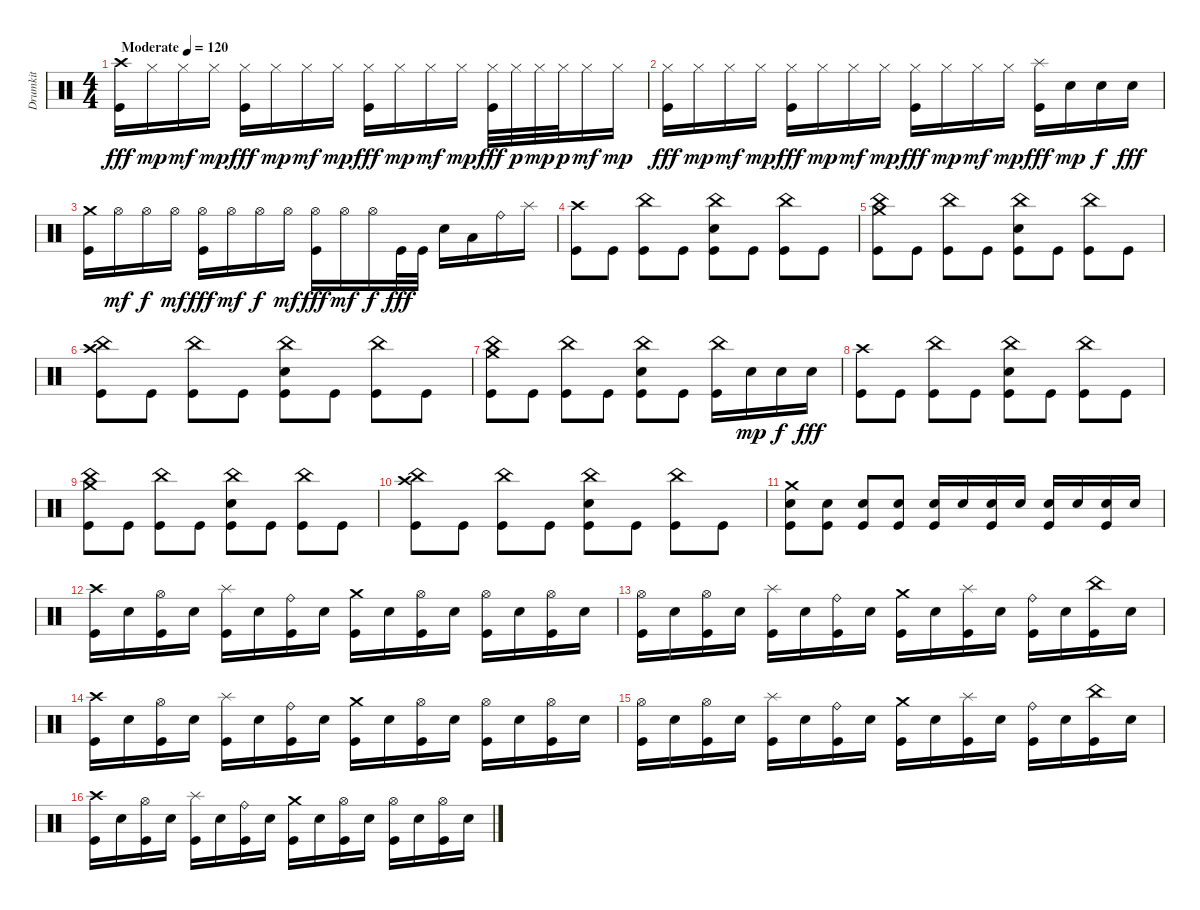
\track ("Drumkit" "Drumkit") {instrument percussion}
\staff {score}
\articulation defaults
\ts (4 4)
\tempo (120 "Moderate")
\clef neutral
\ks c
("Crash high (hit)" "Kick (hit)").16{dy fff} "Hi-Hat (closed)".16{dy mp} "Hi-Hat (closed)".16{dy mf} "Hi-Hat (closed)".16{dy mp} ("Hi-Hat (closed)" "Kick (hit)").16{dy fff} "Hi-Hat (closed)".16{dy mp} "Hi-Hat (closed)".16{dy mf} "Hi-Hat (closed)".16{dy mp} ("Hi-Hat (closed)" "Kick (hit)").16{dy fff} "Hi-Hat (closed)".16{dy mp} "Hi-Hat (closed)".16{dy mf} "Hi-Hat (closed)".16{dy mp} ("Hi-Hat (closed)" "Kick (hit)").32{dy fff} "Hi-Hat (closed)".32{dy p} "Hi-Hat (closed)".32{dy mp} "Hi-Hat (closed)".32{dy p} "Hi-Hat (closed)".16{dy mf} "Hi-Hat (closed)".16{dy mp} |
("Hi-Hat (closed)" "Kick (hit)").16{dy fff} "Hi-Hat (closed)".16{dy mp} "Hi-Hat (closed)".16{dy mf} "Hi-Hat (closed)".16{dy mp} ("Hi-Hat (closed)" "Kick (hit)").16{dy fff} "Hi-Hat (closed)".16{dy mp} "Hi-Hat (closed)".16{dy mf} "Hi-Hat (closed)".16{dy mp} ("Hi-Hat (closed)" "Kick (hit)").16{dy fff} "Hi-Hat (closed)".16{dy mp} "Hi-Hat (closed)".16{dy mf} "Hi-Hat (closed)".16{dy mp} ("Splash (hit)" "Kick (hit)").16{dy fff} "Snare (hit) 2".16{dy mp} "Snare (hit) 2".16{dy f} "Snare (hit) 2".16{dy fff} |
("Crash medium (hit)" "Kick (hit)").16 "Hi-Hat (open)".16{dy mf} "Hi-Hat (open)".16{dy f} "Hi-Hat (open)".16{dy mf} ("Hi-Hat (open)" "Kick (hit)").16{dy fff} "Hi-Hat (open)".16{dy mf} "Hi-Hat (open)".16{dy f} "Hi-Hat (open)".16{dy mf} ("Hi-Hat (open)" "Kick (hit)").16{dy fff} "Hi-Hat (open)".16{dy mf} "Hi-Hat (open)".16{dy f} "Kick (hit)".32{dy fff} "Kick (hit)".32 "Snare (hit) 2".16 "Low Tom (hit)".16 "Ride (bell)".16 "Splash (hit)".16 |
("Crash high (hit)" "Kick (hit)").8 "Kick (hit)".8 ("China (hit)" "Kick (hit)").8 "Kick (hit)".8 ("China (hit)" "Snare (hit) 2" "Kick (hit)").8 "Kick (hit)".8 ("China (hit)" "Kick (hit)").8 "Kick (hit)".8 |
("Crash medium (hit)" "China (hit)" "Kick (hit)").8 "Kick (hit)".8 ("China (hit)" "Kick (hit)").8 "Kick (hit)".8 ("China (hit)" "Snare (hit) 2" "Kick (hit)").8 "Kick (hit)".8 ("China (hit)" "Kick (hit)").8 "Kick (hit)".8 |
("Crash high (hit)" "China (hit)" "Kick (hit)").8 "Kick (hit)".8 ("China (hit)" "Kick (hit)").8 "Kick (hit)".8 ("China (hit)" "Snare (hit) 2" "Kick (hit)").8 "Kick (hit)".8 ("China (hit)" "Kick (hit)").8 "Kick (hit)".8 |
("Crash medium (hit)" "China (hit)" "Kick (hit)").8 "Kick (hit)".8 ("China (hit)" "Kick (hit)").8 "Kick (hit)".8 ("China (hit)" "Snare (hit) 2" "Kick (hit)").8 "Kick (hit)".8 ("China (hit)" "Kick (hit)").16 "Snare (hit) 2".16{dy mp} "Snare (hit) 2".16{dy f} "Snare (hit) 2".16{dy fff} |
("Crash high (hit)" "Kick (hit)").8 "Kick (hit)".8 ("China (hit)" "Kick (hit)").8 "Kick (hit)".8 ("China (hit)" "Snare (hit) 2" "Kick (hit)").8 "Kick (hit)".8 ("China (hit)" "Kick (hit)").8 "Kick (hit)".8 |
("Crash medium (hit)" "China (hit)" "Kick (hit)").8 "Kick (hit)".8 ("China (hit)" "Kick (hit)").8 "Kick (hit)".8 ("China (hit)" "Snare (hit) 2" "Kick (hit)").8 "Kick (hit)".8 ("China (hit)" "Kick (hit)").8 "Kick (hit)".8 |
("Crash high (hit)" "China (hit)" "Kick (hit)").8 "Kick (hit)".8 ("China (hit)" "Kick (hit)").8 "Kick (hit)".8 ("China (hit)" "Snare (hit) 2" "Kick (hit)").8 "Kick (hit)".8 ("China (hit)" "Kick (hit)").8 "Kick (hit)".8 |
("Crash medium (hit)" "Snare (hit) 2" "Kick (hit)").8 ("Snare (hit) 2" "Kick (hit)").8 ("Snare (hit) 2" "Kick (hit)").8 ("Snare (hit) 2" "Kick (hit)").8 ("Snare (hit) 2" "Kick (hit)").16 "Snare (hit) 2".16 ("Snare (hit) 2" "Kick (hit)").16 "Snare (hit) 2".16 ("Snare (hit) 2" "Kick (hit)").16 "Snare (hit) 2".16 ("Snare (hit) 2" "Kick (hit)").16 "Snare (hit) 2".16 |
("Crash high (hit)" "Kick (hit)").16 "Snare (hit) 2".16 ("Hi-Hat (open)" "Kick (hit)").16 "Snare (hit) 2".16 ("Splash (hit)" "Kick (hit)").16 "Snare (hit) 2".16 ("Ride (bell)" "Kick (hit)").16 "Snare (hit) 2".16 ("Crash medium (hit)" "Kick (hit)").16 "Snare (hit) 2".16 ("Hi-Hat (open)" "Kick (hit)").16 "Snare (hit) 2".16 ("Hi-Hat (open)" "Kick (hit)").16 "Snare (hit) 2".16 ("Hi-Hat (open)" "Kick (hit)").16 "Snare (hit) 2".16 |
("Hi-Hat (open)" "Kick (hit)").16 "Snare (hit) 2".16 ("Hi-Hat (open)" "Kick (hit)").16 "Snare (hit) 2".16 ("Splash (hit)" "Kick (hit)").16 "Snare (hit) 2".16 ("Ride (bell)" "Kick (hit)").16 "Snare (hit) 2".16 ("Crash medium (hit)" "Kick (hit)").16 "Snare (hit) 2".16 ("Splash (hit)" "Kick (hit)").16 "Snare (hit) 2".16 ("Ride (bell)" "Kick (hit)").16 "Snare (hit) 2".16 ("China (hit)" "Kick (hit)").16 "Snare (hit) 2".16 |
("Crash high (hit)" "Kick (hit)").16 "Snare (hit) 2".16 ("Hi-Hat (open)" "Kick (hit)").16 "Snare (hit) 2".16 ("Splash (hit)" "Kick (hit)").16 "Snare (hit) 2".16 ("Ride (bell)" "Kick (hit)").16 "Snare (hit) 2".16 ("Crash medium (hit)" "Kick (hit)").16 "Snare (hit) 2".16 ("Hi-Hat (open)" "Kick (hit)").16 "Snare (hit) 2".16 ("Hi-Hat (open)" "Kick (hit)").16 "Snare (hit) 2".16 ("Hi-Hat (open)" "Kick (hit)").16 "Snare (hit) 2".16 |
("Hi-Hat (open)" "Kick (hit)").16 "Snare (hit) 2".16 ("Hi-Hat (open)" "Kick (hit)").16 "Snare (hit) 2".16 ("Splash (hit)" "Kick (hit)").16 "Snare (hit) 2".16 ("Ride (bell)" "Kick (hit)").16 "Snare (hit) 2".16 ("Crash medium (hit)" "Kick (hit)").16 "Snare (hit) 2".16 ("Splash (hit)" "Kick (hit)").16 "Snare (hit) 2".16 ("Ride (bell)" "Kick (hit)").16 "Snare (hit) 2".16 ("China (hit)" "Kick (hit)").16 "Snare (hit) 2".16 |
("Crash high (hit)" "Kick (hit)").16 "Snare (hit) 2".16 ("Hi-Hat (open)" "Kick (hit)").16 "Snare (hit) 2".16 ("Splash (hit)" "Kick (hit)").16 "Snare (hit) 2".16 ("Ride (bell)" "Kick (hit)").16 "Snare (hit) 2".16 ("Crash medium (hit)" "Kick (hit)").16 "Snare (hit) 2".16 ("Hi-Hat (open)" "Kick (hit)").16 "Snare (hit) 2".16 ("Hi-Hat (open)" "Kick (hit)").16 "Snare (hit) 2".16 ("Hi-Hat (open)" "Kick (hit)").16 "Snare (hit) 2".16
